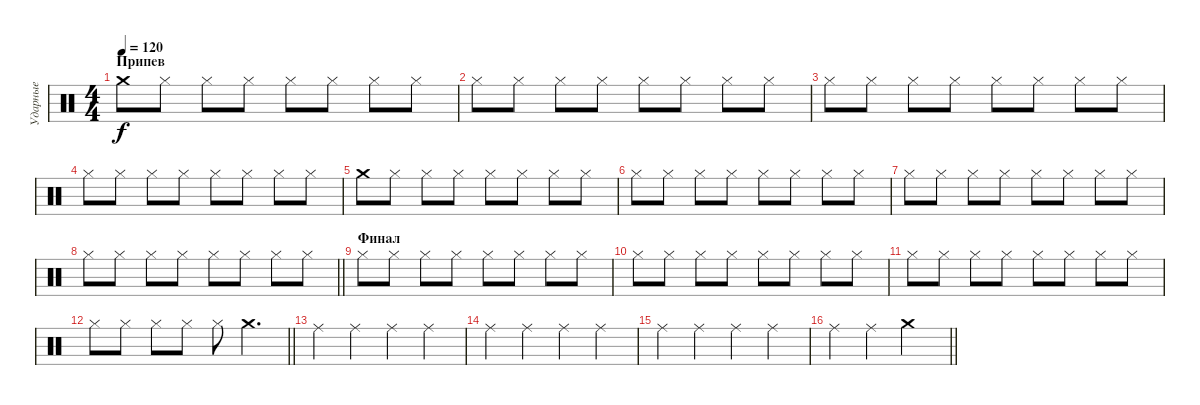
\track ("Ударные" "Ударные") {instrument percussion}
\staff {score}
\articulation defaults
\ts (4 4)
\section ("" "Припев")
\tempo 120
\clef neutral
\ks c "Crash medium (hit)".8{dy f} "Hi-Hat (closed)".8 "Hi-Hat (closed)".8 "Hi-Hat (closed)".8 "Hi-Hat (closed)".8 "Hi-Hat (closed)".8 "Hi-Hat (closed)".8 "Hi-Hat (closed)".8
|
"Hi-Hat (closed)".8 "Hi-Hat (closed)".8 "Hi-Hat (closed)".8 "Hi-Hat (closed)".8 "Hi-Hat (closed)".8 "Hi-Hat (closed)".8 "Hi-Hat (closed)".8 "Hi-Hat (closed)".8 |
"Hi-Hat (closed)".8 "Hi-Hat (closed)".8 "Hi-Hat (closed)".8 "Hi-Hat (closed)".8 "Hi-Hat (closed)".8 "Hi-Hat (closed)".8 "Hi-Hat (closed)".8 "Hi-Hat (closed)".8 |
"Hi-Hat (closed)".8 "Hi-Hat (closed)".8 "Hi-Hat (closed)".8 "Hi-Hat (closed)".8 "Hi-Hat (closed)".8 "Hi-Hat (closed)".8 "Hi-Hat (closed)".8 "Hi-Hat (closed)".8 |
"Crash medium (hit)".8 "Hi-Hat (closed)".8 "Hi-Hat (closed)".8 "Hi-Hat (closed)".8 "Hi-Hat (closed)".8 "Hi-Hat (closed)".8 "Hi-Hat (closed)".8 "Hi-Hat (closed)".8 |
"Hi-Hat (closed)".8 "Hi-Hat (closed)".8 "Hi-Hat (closed)".8 "Hi-Hat (closed)".8 "Hi-Hat (closed)".8 "Hi-Hat (closed)".8 "Hi-Hat (closed)".8 "Hi-Hat (closed)".8 |
"Hi-Hat (closed)".8 "Hi-Hat (closed)".8 "Hi-Hat (closed)".8 "Hi-Hat (closed)".8 "Hi-Hat (closed)".8 "Hi-Hat (closed)".8 "Hi-Hat (closed)".8 "Hi-Hat (closed)".8 |
\barLineRight lightlight "Hi-Hat (closed)".8 "Hi-Hat (closed)".8 "Hi-Hat (closed)".8 "Hi-Hat (closed)".8 "Hi-Hat (closed)".8 "Hi-Hat (closed)".8 "Hi-Hat (closed)".8 "Hi-Hat (closed)".8
|
\section ("" "Финал")
"Hi-Hat (closed)".8 "Hi-Hat (closed)".8 "Hi-Hat (closed)".8 "Hi-Hat (closed)".8 "Hi-Hat (closed)".8 "Hi-Hat (closed)".8 "Hi-Hat (closed)".8 "Hi-Hat (closed)".8 |
"Hi-Hat (closed)".8 "Hi-Hat (closed)".8 "Hi-Hat (closed)".8 "Hi-Hat (closed)".8 "Hi-Hat (closed)".8 "Hi-Hat (closed)".8 "Hi-Hat (closed)".8 "Hi-Hat (closed)".8 |
"Hi-Hat (closed)".8 "Hi-Hat (closed)".8 "Hi-Hat (closed)".8 "Hi-Hat (closed)".8 "Hi-Hat (closed)".8 "Hi-Hat (closed)".8 "Hi-Hat (closed)".8 "Hi-Hat (closed)".8 |
\barLineRight lightlight "Hi-Hat (closed)".8 "Hi-Hat (closed)".8 "Hi-Hat (closed)".8 "Hi-Hat (closed)".8 "Hi-Hat (closed)".8 "Crash medium (hit)".4{d}
|
"Ride (middle)".4 "Ride (middle)".4 "Ride (middle)".4 "Ride (middle)".4 |
"Ride (middle)".4 "Ride (middle)".4 "Ride (middle)".4 "Ride (middle)".4 |
"Ride (middle)".4 "Ride (middle)".4 "Ride (middle)".4 "Ride (middle)".4 |
\barLineRight lightlight "Ride (middle)".4 "Ride (middle)".4 "Crash medium (hit)".2
